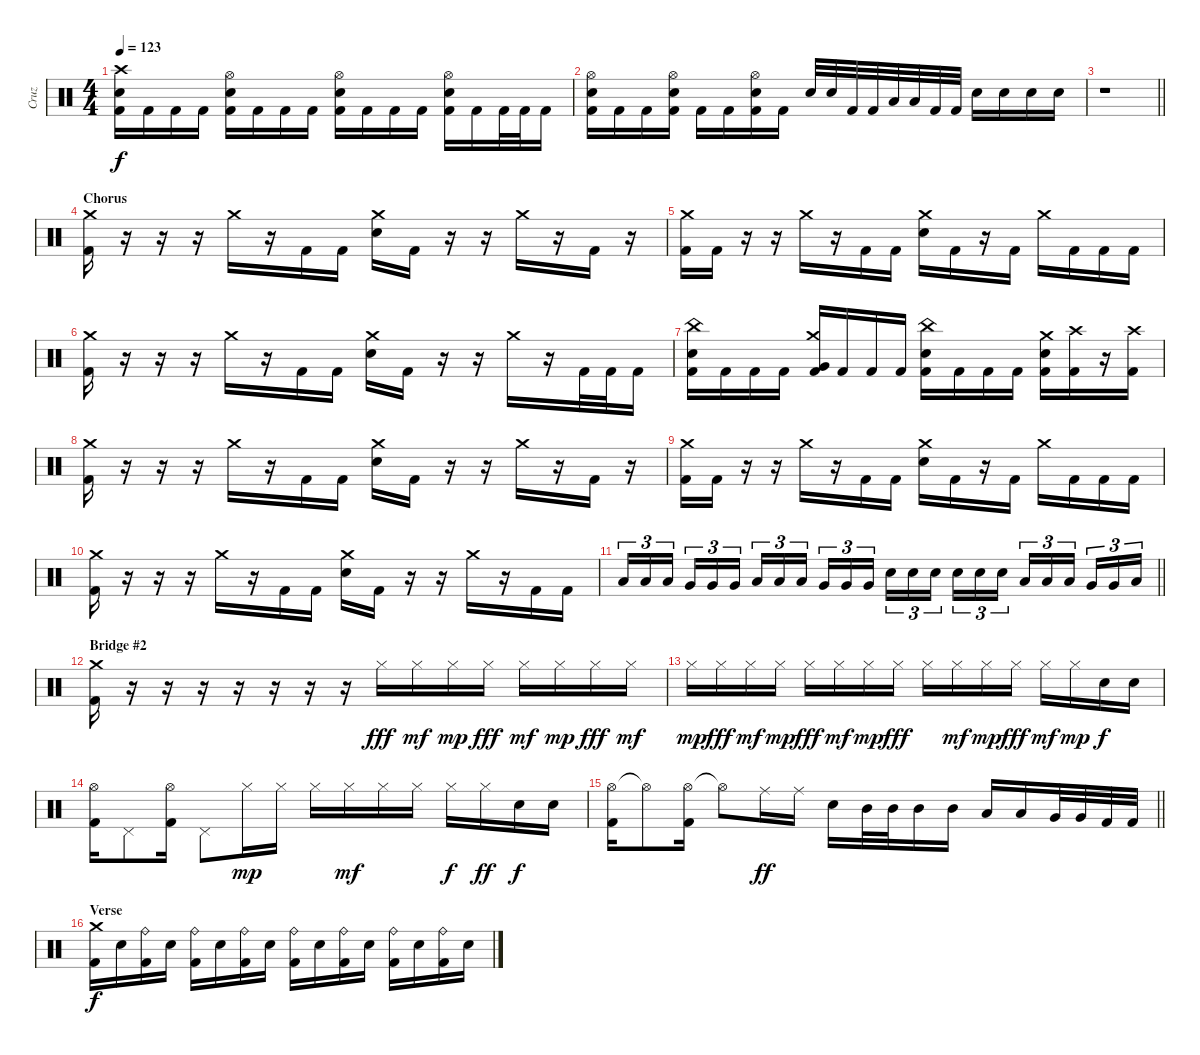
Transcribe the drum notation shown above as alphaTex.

\track ("Cruz" "Cruz") {instrument percussion}
\staff {score}
\articulation defaults
\ts (4 4)
\tempo 123
\clef neutral
\ks c
("Crash high (hit)" "Snare (hit) 2" "Kick (hit) 2").16{dy f} "Kick (hit) 2".16 "Kick (hit) 2".16 "Kick (hit) 2".16 ("Hi-Hat (open)" "Snare (hit) 2" "Kick (hit) 2").16 "Kick (hit) 2".16 "Kick (hit) 2".16 "Kick (hit) 2".16 ("Hi-Hat (open)" "Snare (hit) 2" "Kick (hit) 2").16 "Kick (hit) 2".16 "Kick (hit) 2".16 "Kick (hit) 2".16 ("Hi-Hat (open)" "Snare (hit) 2" "Kick (hit) 2").16 "Kick (hit) 2".16 "Kick (hit) 2".32 "Kick (hit) 2".32 "Kick (hit) 2".16 |
("Hi-Hat (open)" "Snare (hit) 2" "Kick (hit) 2").16 "Kick (hit) 2".16 "Kick (hit) 2".16 ("Hi-Hat (open)" "Snare (hit) 2" "Kick (hit) 2").16 "Kick (hit) 2".16 "Kick (hit) 2".16 ("Hi-Hat (open)" "Snare (hit) 2" "Kick (hit) 2").16 "Kick (hit) 2".16 "Snare (hit) 2".32 "Snare (hit) 2".32 "Kick (hit) 2".32 "Kick (hit) 2".32 "Low Tom (hit)".32 "Low Tom (hit)".32 "Kick (hit) 2".32 "Kick (hit) 2".32 "Snare (hit) 2".16 "Snare (hit) 2".16 "Snare (hit) 2".16 "Snare (hit) 2".16 |
\barLineRight lightlight
r.1 |
\section ("" "Chorus")
("Crash medium (hit)" "Kick (hit) 2").16 r.16 r.16 r.16 "Crash medium (hit)".16 r.16 "Kick (hit) 2".16 "Kick (hit) 2".16 ("Crash medium (hit)" "Snare (hit) 2").16 "Kick (hit) 2".16 r.16 r.16 "Crash medium (hit)".16 r.16 "Kick (hit) 2".16 r.16 |
("Crash medium (hit)" "Kick (hit) 2").16 "Kick (hit) 2".16 r.16 r.16 "Crash medium (hit)".16 r.16 "Kick (hit) 2".16 "Kick (hit) 2".16 ("Crash medium (hit)" "Snare (hit) 2").16 "Kick (hit) 2".16 r.16 "Kick (hit) 2".16 "Crash medium (hit)".16 "Kick (hit) 2".16 "Kick (hit) 2".16 "Kick (hit) 2".16 |
("Crash medium (hit)" "Kick (hit) 2").16 r.16 r.16 r.16 "Crash medium (hit)".16 r.16 "Kick (hit) 2".16 "Kick (hit) 2".16 ("Crash medium (hit)" "Snare (hit) 2").16 "Kick (hit) 2".16 r.16 r.16 "Crash medium (hit)".16 r.16 "Kick (hit) 2".32 "Kick (hit) 2".32 "Kick (hit) 2".16 |
("China (hit)" "Snare (hit) 2" "Kick (hit) 2").16 "Kick (hit) 2".16 "Kick (hit) 2".16 "Kick (hit) 2".16 ("Crash medium (hit)" "Very Low Tom (hit)" "Kick (hit) 2").16 "Kick (hit) 2".16 "Kick (hit) 2".16 "Kick (hit) 2".16 ("China (hit)" "Snare (hit) 2" "Kick (hit) 2").16 "Kick (hit) 2".16 "Kick (hit) 2".16 "Kick (hit) 2".16 ("Crash medium (hit)" "Snare (hit) 2" "Kick (hit) 2").16 ("Crash high (hit)" "Kick (hit) 2").16 r.16 ("Crash high (hit)" "Kick (hit) 2").16 |
("Crash medium (hit)" "Kick (hit) 2").16 r.16 r.16 r.16 "Crash medium (hit)".16 r.16 "Kick (hit) 2".16 "Kick (hit) 2".16 ("Crash medium (hit)" "Snare (hit) 2").16 "Kick (hit) 2".16 r.16 r.16 "Crash medium (hit)".16 r.16 "Kick (hit) 2".16 r.16 |
("Crash medium (hit)" "Kick (hit) 2").16 "Kick (hit) 2".16 r.16 r.16 "Crash medium (hit)".16 r.16 "Kick (hit) 2".16 "Kick (hit) 2".16 ("Crash medium (hit)" "Snare (hit) 2").16 "Kick (hit) 2".16 r.16 "Kick (hit) 2".16 "Crash medium (hit)".16 "Kick (hit) 2".16 "Kick (hit) 2".16 "Kick (hit) 2".16 |
("Crash medium (hit)" "Kick (hit) 2").16 r.16 r.16 r.16 "Crash medium (hit)".16 r.16 "Kick (hit) 2".16 "Kick (hit) 2".16 ("Crash medium (hit)" "Snare (hit) 2").16 "Kick (hit) 2".16 r.16 r.16 "Crash medium (hit)".16 r.16 "Kick (hit) 2".16 "Kick (hit) 2".16 |
\barLineRight lightlight "Low Floor Tom (hit)".16{tu (3 2)} "Low Floor Tom (hit)".16{tu (3 2)} "Low Floor Tom (hit)".16{tu (3 2) beam splitsecondary} "Very Low Tom (hit)".16{tu (3 2)} "Very Low Tom (hit)".16{tu (3 2)} "Very Low Tom (hit)".16{tu (3 2)} "Low Tom (hit)".16{tu (3 2)} "Low Tom (hit)".16{tu (3 2)} "Low Tom (hit)".16{tu (3 2) beam splitsecondary} "Very Low Tom (hit)".16{tu (3 2)} "Very Low Tom (hit)".16{tu (3 2)} "Very Low Tom (hit)".16{tu (3 2)} "Snare (hit) 2".16{tu (3 2)} "Snare (hit) 2".16{tu (3 2)} "Snare (hit) 2".16{tu (3 2) beam splitsecondary} "Snare (hit) 2".16{tu (3 2)} "Snare (hit) 2".16{tu (3 2)} "Snare (hit) 2".16{tu (3 2)} "Low Tom (hit)".16{tu (3 2)} "Low Tom (hit)".16{tu (3 2)} "Low Tom (hit)".16{tu (3 2) beam splitsecondary} "Very Low Tom (hit)".16{tu (3 2)} "Very Low Tom (hit)".16{tu (3 2)} "Low Floor Tom (hit)".16{tu (3 2)}
|
\section ("" "Bridge #2")
("Crash medium (hit)" "Kick (hit) 2").16 r.16 r.16 r.16 r.16 r.16 r.16 r.16 "Hi-Hat (closed)".16{dy fff} "Hi-Hat (closed)".16{dy mf} "Hi-Hat (closed)".16{dy mp} "Hi-Hat (closed)".16{dy fff} "Hi-Hat (closed)".16{dy mf} "Hi-Hat (closed)".16{dy mp} "Hi-Hat (closed)".16{dy fff} "Hi-Hat (closed)".16{dy mf} |
"Hi-Hat (closed)".16{dy mp} "Hi-Hat (closed)".16{dy fff} "Hi-Hat (closed)".16{dy mf} "Hi-Hat (closed)".16{dy mp} "Hi-Hat (closed)".16{dy fff} "Hi-Hat (closed)".16{dy mf} "Hi-Hat (closed)".16{dy mp} "Hi-Hat (closed)".16{dy fff} "Hi-Hat (closed)".16 "Hi-Hat (closed)".16{dy mf} "Hi-Hat (closed)".16{dy mp} "Hi-Hat (closed)".16{dy fff} "Hi-Hat (closed)".16{dy mf} "Hi-Hat (closed)".16{dy mp} "Snare (hit) 2".16{dy f} "Snare (hit) 2".16 |
("Hi-Hat (open)" "Kick (hit) 2").16 "Pedal Hi-Hat (hit)".8 ("Hi-Hat (open)" "Kick (hit) 2").16 "Pedal Hi-Hat (hit)".8 "Hi-Hat (closed)".16{dy mp} "Hi-Hat (closed)".16 "Hi-Hat (closed)".16 "Hi-Hat (closed)".16{dy mf} "Hi-Hat (closed)".16 "Hi-Hat (closed)".16 "Hi-Hat (closed)".16{dy f} "Hi-Hat (closed)".16{dy ff} "Snare (hit) 2".16{dy f} "Snare (hit) 2".16 |
\barLineRight lightlight
("Hi-Hat (open)" "Kick (hit) 2").16 "Hi-Hat (open)"{t}.8 ("Hi-Hat (open)" "Kick (hit) 2").16 "Hi-Hat (open)"{t}.8 "Ride (middle)".16{dy ff} "Ride (middle)".16 "Snare (hit) 2".16 "Mid Tom (hit)".32 "Mid Tom (hit)".32 "Mid Tom (hit)".16 "Mid Tom (hit)".16 "Low Tom (hit)".16 "Low Tom (hit)".16 "Very Low Tom (hit)".32 "Very Low Tom (hit)".32 "Kick (hit) 2".32 "Kick (hit) 2".32 |
\section ("" "Verse")
("Crash medium (hit)" "Kick (hit) 2").16{dy f} "Snare (hit) 2".16 ("Ride (bell)" "Kick (hit) 2").16 "Snare (hit) 2".16 ("Ride (bell)" "Kick (hit) 2").16 "Snare (hit) 2".16 ("Ride (bell)" "Kick (hit) 2").16 "Snare (hit) 2".16 ("Ride (bell)" "Kick (hit) 2").16 "Snare (hit) 2".16 ("Ride (bell)" "Kick (hit) 2").16 "Snare (hit) 2".16 ("Ride (bell)" "Kick (hit) 2").16 "Snare (hit) 2".16 ("Ride (bell)" "Kick (hit) 2").16 "Snare (hit) 2".16
